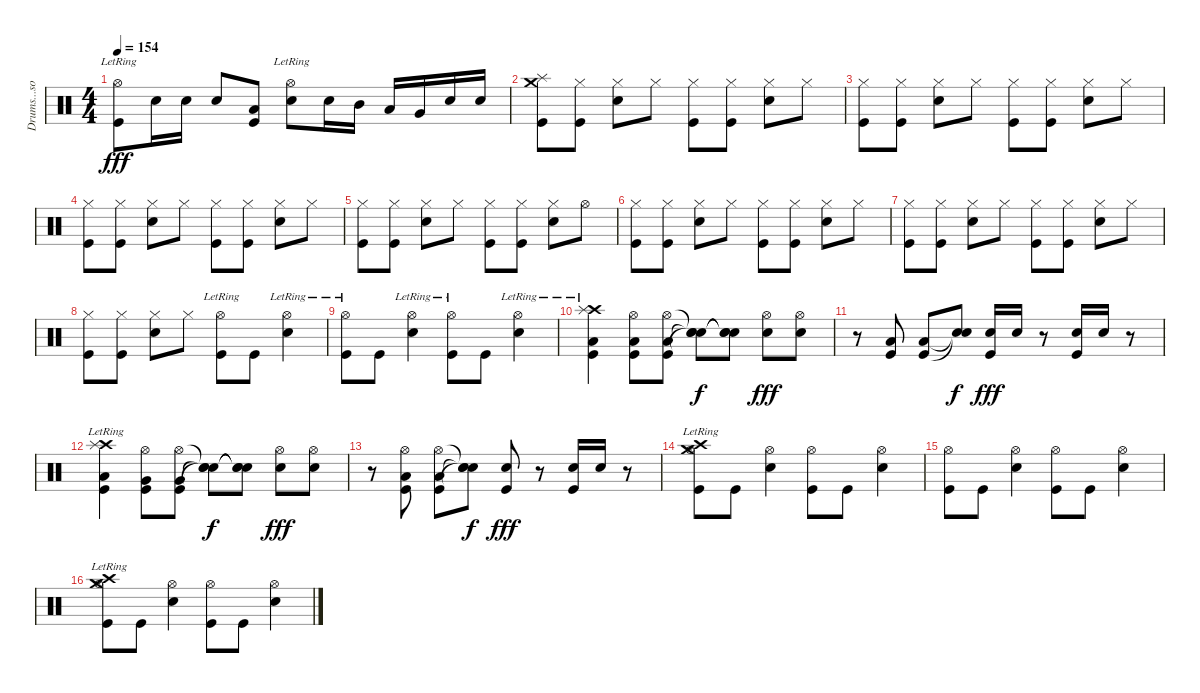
\track ("Drums...song tabbed by ae" "Drums...so") {instrument percussion}
\staff {score}
\articulation defaults
\ts (4 4)
\tempo 154
\clef neutral
\ks c
("Hi-Hat (open)"{lr} "Kick (hit)").8{dy fff} "Snare (hit) 2".16 "Snare (hit) 2".16 "Snare (hit) 2".8 ("Low Tom (hit)" "Kick (hit)").8 ("Hi-Hat (open)"{lr} "Snare (hit) 2").8 "Snare (hit) 2".16 "Mid Tom (hit)".16 "Low Tom (hit)".16 "Very Low Tom (hit)".16 "Snare (hit) 2".16 "Snare (hit) 2".16 |
("Splash (hit)" "Crash medium (hit)" "Kick (hit)").8 ("Hi-Hat (closed)" "Kick (hit)").8 ("Hi-Hat (closed)" "Snare (hit) 2").8 "Hi-Hat (closed)".8 ("Hi-Hat (closed)" "Kick (hit)").8 ("Hi-Hat (closed)" "Kick (hit)").8 ("Hi-Hat (closed)" "Snare (hit) 2").8 "Hi-Hat (closed)".8 |
("Hi-Hat (closed)" "Kick (hit)").8 ("Hi-Hat (closed)" "Kick (hit)").8 ("Hi-Hat (closed)" "Snare (hit) 2").8 "Hi-Hat (closed)".8 ("Hi-Hat (closed)" "Kick (hit)").8 ("Hi-Hat (closed)" "Kick (hit)").8 ("Hi-Hat (closed)" "Snare (hit) 2").8 "Hi-Hat (closed)".8 |
("Hi-Hat (closed)" "Kick (hit)").8 ("Hi-Hat (closed)" "Kick (hit)").8 ("Hi-Hat (closed)" "Snare (hit) 2").8 "Hi-Hat (closed)".8 ("Hi-Hat (closed)" "Kick (hit)").8 ("Hi-Hat (closed)" "Kick (hit)").8 ("Hi-Hat (closed)" "Snare (hit) 2").8 "Hi-Hat (closed)".8 |
("Hi-Hat (closed)" "Kick (hit)").8 ("Hi-Hat (closed)" "Kick (hit)").8 ("Hi-Hat (closed)" "Snare (hit) 2").8 "Hi-Hat (closed)".8 ("Hi-Hat (closed)" "Kick (hit)").8 ("Hi-Hat (closed)" "Kick (hit)").8 ("Hi-Hat (closed)" "Snare (hit) 2").8 "Hi-Hat (open)".8 |
("Hi-Hat (closed)" "Kick (hit)").8 ("Hi-Hat (closed)" "Kick (hit)").8 ("Hi-Hat (closed)" "Snare (hit) 2").8 "Hi-Hat (closed)".8 ("Hi-Hat (closed)" "Kick (hit)").8 ("Hi-Hat (closed)" "Kick (hit)").8 ("Hi-Hat (closed)" "Snare (hit) 2").8 "Hi-Hat (closed)".8 |
("Hi-Hat (closed)" "Kick (hit)").8 ("Hi-Hat (closed)" "Kick (hit)").8 ("Hi-Hat (closed)" "Snare (hit) 2").8 "Hi-Hat (closed)".8 ("Hi-Hat (closed)" "Kick (hit)").8 ("Hi-Hat (closed)" "Kick (hit)").8 ("Hi-Hat (closed)" "Snare (hit) 2").8 "Hi-Hat (closed)".8 |
("Hi-Hat (closed)" "Kick (hit)").8 ("Hi-Hat (closed)" "Kick (hit)").8 ("Hi-Hat (closed)" "Snare (hit) 2").8 "Hi-Hat (closed)".8 ("Hi-Hat (open)"{lr} "Kick (hit)").8 "Kick (hit)".8 ("Hi-Hat (open)"{lr} "Snare (hit) 2").4 |
("Hi-Hat (open)"{lr} "Kick (hit)").8 "Kick (hit)".8 ("Hi-Hat (open)"{lr} "Snare (hit) 2").4 ("Hi-Hat (open)"{lr} "Kick (hit)").8 "Kick (hit)".8 ("Hi-Hat (open)"{lr} "Snare (hit) 2").4 |
("Crash high (hit)"{lr} "Splash (hit)"{lr} "Low Tom (hit)"{lr} "Kick (hit)"{lr}).4 ("Hi-Hat (open)" "Low Tom (hit)" "Kick (hit)").8 ("Hi-Hat (open)" "Low Tom (hit)" "Kick (hit)").8 ("Snare (hit)"{t} "Snare (hit)"{t} "Snare (hit)"{t}).8{dy f} ("Snare (hit)"{t} "Snare (hit)"{t} "Snare (hit)"{t}).8 ("Hi-Hat (open)" "Snare (hit) 2").8{dy fff} ("Hi-Hat (open)" "Snare (hit) 2").8 |
r.8 ("Low Tom (hit)" "Kick (hit)").8 ("Low Tom (hit)" "Kick (hit)").8 ("Snare (hit)"{t} "Snare (hit)"{t}).8{dy f} ("Snare (hit) 2" "Kick (hit)").16{dy fff} "Snare (hit) 2".16 r.8 ("Snare (hit) 2" "Kick (hit)").16 "Snare (hit) 2".16 r.8 |
("Crash high (hit)"{lr} "Splash (hit)"{lr} "Low Tom (hit)"{lr} "Kick (hit)"{lr}).4 ("Hi-Hat (open)" "Very Low Tom (hit)" "Kick (hit)").8 ("Hi-Hat (open)" "Very Low Tom (hit)" "Kick (hit)").8 ("Snare (hit)"{t} "Snare (hit)"{t} "Snare (hit)"{t}).8{dy f} ("Snare (hit)"{t} "Snare (hit)"{t} "Snare (hit)"{t}).8 ("Hi-Hat (open)" "Snare (hit) 2").8{dy fff} ("Hi-Hat (open)" "Snare (hit) 2").8 |
r.8 ("Hi-Hat (open)" "Low Tom (hit)" "Kick (hit)").8 ("Hi-Hat (open)" "Low Tom (hit)" "Kick (hit)").8 ("Snare (hit)"{t} "Snare (hit)"{t} "Snare (hit)"{t}).8{dy f} ("Snare (hit) 2" "Kick (hit)").8{dy fff} r.8 ("Snare (hit) 2" "Kick (hit)").16 "Snare (hit) 2".16 r.8 |
("Crash high (hit)"{lr} "Hi-Hat (open)" "Crash medium (hit)"{lr} "Kick (hit)").8 "Kick (hit)".8 ("Hi-Hat (open)" "Snare (hit) 2").4 ("Hi-Hat (open)" "Kick (hit)").8 "Kick (hit)".8 ("Hi-Hat (open)" "Snare (hit) 2").4 |
("Hi-Hat (open)" "Kick (hit)").8 "Kick (hit)".8 ("Hi-Hat (open)" "Snare (hit) 2").4 ("Hi-Hat (open)" "Kick (hit)").8 "Kick (hit)".8 ("Hi-Hat (open)" "Snare (hit) 2").4 |
("Crash high (hit)"{lr} "Hi-Hat (open)" "Crash medium (hit)"{lr} "Kick (hit)").8 "Kick (hit)".8 ("Hi-Hat (open)" "Snare (hit) 2").4 ("Hi-Hat (open)" "Kick (hit)").8 "Kick (hit)".8 ("Hi-Hat (open)" "Snare (hit) 2").4
